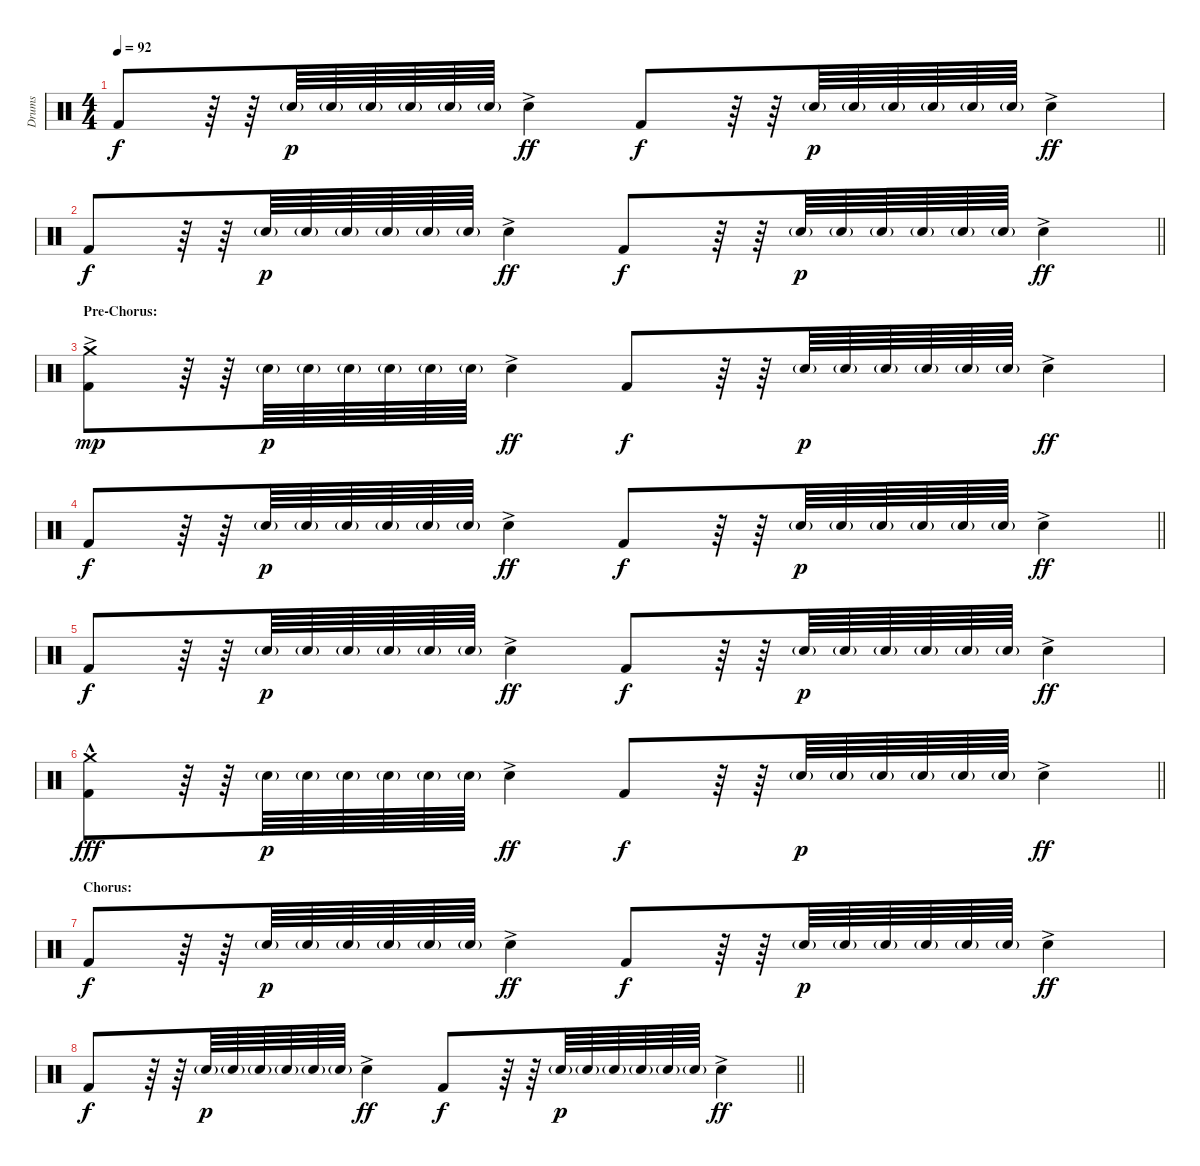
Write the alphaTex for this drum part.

\track ("Drums" "Drums") {instrument percussion}
\staff {score}
\articulation defaults
\ts (4 4)
\tempo 92
\clef neutral
\ks c "Kick (hit) 2".8{dy f}
r.64 r.64 "Snare (hit) 2"{g}.64{dy p} "Snare (hit) 2"{g}.64 "Snare (hit) 2"{g}.64 "Snare (hit) 2"{g}.64 "Snare (hit) 2"{g}.64 "Snare (hit) 2"{g}.64 "Snare (hit) 2"{ac}.4{dy ff} "Kick (hit) 2".8{dy f} r.64 r.64 "Snare (hit) 2"{g}.64{dy p} "Snare (hit) 2"{g}.64 "Snare (hit) 2"{g}.64 "Snare (hit) 2"{g}.64 "Snare (hit) 2"{g}.64 "Snare (hit) 2"{g}.64 "Snare (hit) 2"{ac}.4{dy ff} |
\barLineRight lightlight "Kick (hit) 2".8{dy f}
r.64 r.64 "Snare (hit) 2"{g}.64{dy p} "Snare (hit) 2"{g}.64 "Snare (hit) 2"{g}.64 "Snare (hit) 2"{g}.64 "Snare (hit) 2"{g}.64 "Snare (hit) 2"{g}.64 "Snare (hit) 2"{ac}.4{dy ff} "Kick (hit) 2".8{dy f} r.64 r.64 "Snare (hit) 2"{g}.64{dy p} "Snare (hit) 2"{g}.64 "Snare (hit) 2"{g}.64 "Snare (hit) 2"{g}.64 "Snare (hit) 2"{g}.64 "Snare (hit) 2"{g}.64 "Snare (hit) 2"{ac}.4{dy ff} |
\section ("" "Pre-Chorus:")
("Crash medium (hit)"{ac} "Kick (hit) 2").8{dy mp} r.64 r.64 "Snare (hit) 2"{g}.64{dy p} "Snare (hit) 2"{g}.64 "Snare (hit) 2"{g}.64 "Snare (hit) 2"{g}.64 "Snare (hit) 2"{g}.64 "Snare (hit) 2"{g}.64 "Snare (hit) 2"{ac}.4{dy ff} "Kick (hit) 2".8{dy f} r.64 r.64 "Snare (hit) 2"{g}.64{dy p} "Snare (hit) 2"{g}.64 "Snare (hit) 2"{g}.64 "Snare (hit) 2"{g}.64 "Snare (hit) 2"{g}.64 "Snare (hit) 2"{g}.64 "Snare (hit) 2"{ac}.4{dy ff} |
\barLineRight lightlight "Kick (hit) 2".8{dy f}
r.64 r.64 "Snare (hit) 2"{g}.64{dy p} "Snare (hit) 2"{g}.64 "Snare (hit) 2"{g}.64 "Snare (hit) 2"{g}.64 "Snare (hit) 2"{g}.64 "Snare (hit) 2"{g}.64 "Snare (hit) 2"{ac}.4{dy ff} "Kick (hit) 2".8{dy f} r.64 r.64 "Snare (hit) 2"{g}.64{dy p} "Snare (hit) 2"{g}.64 "Snare (hit) 2"{g}.64 "Snare (hit) 2"{g}.64 "Snare (hit) 2"{g}.64 "Snare (hit) 2"{g}.64 "Snare (hit) 2"{ac}.4{dy ff} |
"Kick (hit) 2".8{dy f} r.64 r.64 "Snare (hit) 2"{g}.64{dy p} "Snare (hit) 2"{g}.64 "Snare (hit) 2"{g}.64 "Snare (hit) 2"{g}.64 "Snare (hit) 2"{g}.64 "Snare (hit) 2"{g}.64 "Snare (hit) 2"{ac}.4{dy ff} "Kick (hit) 2".8{dy f} r.64 r.64 "Snare (hit) 2"{g}.64{dy p} "Snare (hit) 2"{g}.64 "Snare (hit) 2"{g}.64 "Snare (hit) 2"{g}.64 "Snare (hit) 2"{g}.64 "Snare (hit) 2"{g}.64 "Snare (hit) 2"{ac}.4{dy ff} |
\barLineRight lightlight
("Crash medium (hit)"{hac} "Kick (hit) 2"{hac}).8{dy fff} r.64 r.64 "Snare (hit) 2"{g}.64{dy p} "Snare (hit) 2"{g}.64 "Snare (hit) 2"{g}.64 "Snare (hit) 2"{g}.64 "Snare (hit) 2"{g}.64 "Snare (hit) 2"{g}.64 "Snare (hit) 2"{ac}.4{dy ff} "Kick (hit) 2".8{dy f} r.64 r.64 "Snare (hit) 2"{g}.64{dy p} "Snare (hit) 2"{g}.64 "Snare (hit) 2"{g}.64 "Snare (hit) 2"{g}.64 "Snare (hit) 2"{g}.64 "Snare (hit) 2"{g}.64 "Snare (hit) 2"{ac}.4{dy ff} |
\section ("" "Chorus:")
"Kick (hit) 2".8{dy f} r.64 r.64 "Snare (hit) 2"{g}.64{dy p} "Snare (hit) 2"{g}.64 "Snare (hit) 2"{g}.64 "Snare (hit) 2"{g}.64 "Snare (hit) 2"{g}.64 "Snare (hit) 2"{g}.64 "Snare (hit) 2"{ac}.4{dy ff} "Kick (hit) 2".8{dy f} r.64 r.64 "Snare (hit) 2"{g}.64{dy p} "Snare (hit) 2"{g}.64 "Snare (hit) 2"{g}.64 "Snare (hit) 2"{g}.64 "Snare (hit) 2"{g}.64 "Snare (hit) 2"{g}.64 "Snare (hit) 2"{ac}.4{dy ff} |
\barLineRight lightlight "Kick (hit) 2".8{dy f}
r.64 r.64 "Snare (hit) 2"{g}.64{dy p} "Snare (hit) 2"{g}.64 "Snare (hit) 2"{g}.64 "Snare (hit) 2"{g}.64 "Snare (hit) 2"{g}.64 "Snare (hit) 2"{g}.64 "Snare (hit) 2"{ac}.4{dy ff} "Kick (hit) 2".8{dy f} r.64 r.64 "Snare (hit) 2"{g}.64{dy p} "Snare (hit) 2"{g}.64 "Snare (hit) 2"{g}.64 "Snare (hit) 2"{g}.64 "Snare (hit) 2"{g}.64 "Snare (hit) 2"{g}.64 "Snare (hit) 2"{ac}.4{dy ff}
